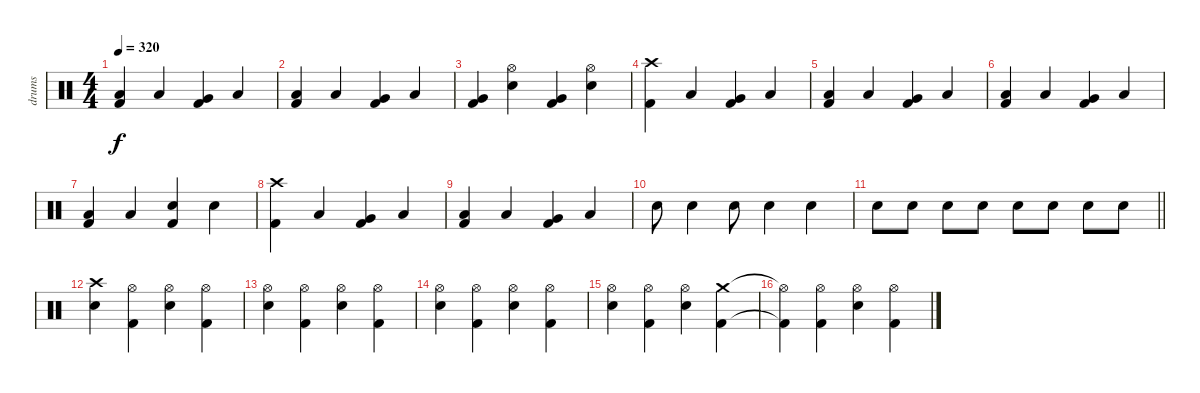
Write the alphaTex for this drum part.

\track ("drums" "drums") {instrument percussion}
\staff {score}
\articulation defaults
\ts (4 4)
\tempo 320
\clef neutral
\ks c
("Low Floor Tom (hit)" "Kick (hit) 2").4{dy f} "Low Floor Tom (hit)".4 ("Very Low Tom (hit)" "Kick (hit) 2").4 "Low Floor Tom (hit)".4 |
("Low Floor Tom (hit)" "Kick (hit) 2").4 "Low Floor Tom (hit)".4 ("Very Low Tom (hit)" "Kick (hit) 2").4 "Low Floor Tom (hit)".4 |
("Very Low Tom (hit)" "Kick (hit) 2").4 ("Hi-Hat (open)" "Snare (hit) 2").4 ("Very Low Tom (hit)" "Kick (hit) 2").4 ("Hi-Hat (open)" "Snare (hit) 2").4 |
("Crash high (hit)" "Kick (hit) 2").4 "Low Floor Tom (hit)".4 ("Very Low Tom (hit)" "Kick (hit) 2").4 "Low Floor Tom (hit)".4 |
("Low Floor Tom (hit)" "Kick (hit) 2").4 "Low Floor Tom (hit)".4 ("Very Low Tom (hit)" "Kick (hit) 2").4 "Low Floor Tom (hit)".4 |
("Low Floor Tom (hit)" "Kick (hit) 2").4 "Low Floor Tom (hit)".4 ("Very Low Tom (hit)" "Kick (hit) 2").4 "Low Floor Tom (hit)".4 |
("Low Floor Tom (hit)" "Kick (hit) 2").4 "Low Floor Tom (hit)".4 ("Snare (hit) 2" "Kick (hit) 2").4 "Snare (hit) 2".4 |
("Crash high (hit)" "Kick (hit) 2").4 "Low Floor Tom (hit)".4 ("Very Low Tom (hit)" "Kick (hit) 2").4 "Low Floor Tom (hit)".4 |
("Low Floor Tom (hit)" "Kick (hit) 2").4 "Low Floor Tom (hit)".4 ("Very Low Tom (hit)" "Kick (hit) 2").4 "Low Floor Tom (hit)".4 |
"Snare (hit) 2".8 "Snare (hit) 2".4 "Snare (hit) 2".8 "Snare (hit) 2".4 "Snare (hit) 2".4 |
\barLineRight lightlight "Snare (hit) 2".8 "Snare (hit) 2".8 "Snare (hit) 2".8 "Snare (hit) 2".8 "Snare (hit) 2".8 "Snare (hit) 2".8 "Snare (hit) 2".8 "Snare (hit) 2".8
|
("Crash high (hit)" "Snare (hit) 2").4 ("Hi-Hat (open)" "Kick (hit) 2").4 ("Hi-Hat (open)" "Snare (hit) 2").4 ("Hi-Hat (open)" "Kick (hit) 2").4 |
("Hi-Hat (open)" "Snare (hit) 2").4 ("Hi-Hat (open)" "Kick (hit) 2").4 ("Hi-Hat (open)" "Snare (hit) 2").4 ("Hi-Hat (open)" "Kick (hit) 2").4 |
("Hi-Hat (open)" "Snare (hit) 2").4 ("Hi-Hat (open)" "Kick (hit) 2").4 ("Hi-Hat (open)" "Snare (hit) 2").4 ("Hi-Hat (open)" "Kick (hit) 2").4 |
("Hi-Hat (open)" "Snare (hit) 2").4 ("Hi-Hat (open)" "Kick (hit) 2").4 ("Hi-Hat (open)" "Snare (hit) 2").4 ("Crash medium (hit)" "Kick (hit) 2").4 |
("Hi-Hat (open)"{t} "Kick (hit) 2"{t}).4 ("Hi-Hat (open)" "Kick (hit) 2").4 ("Hi-Hat (open)" "Snare (hit) 2").4 ("Hi-Hat (open)" "Kick (hit) 2").4
